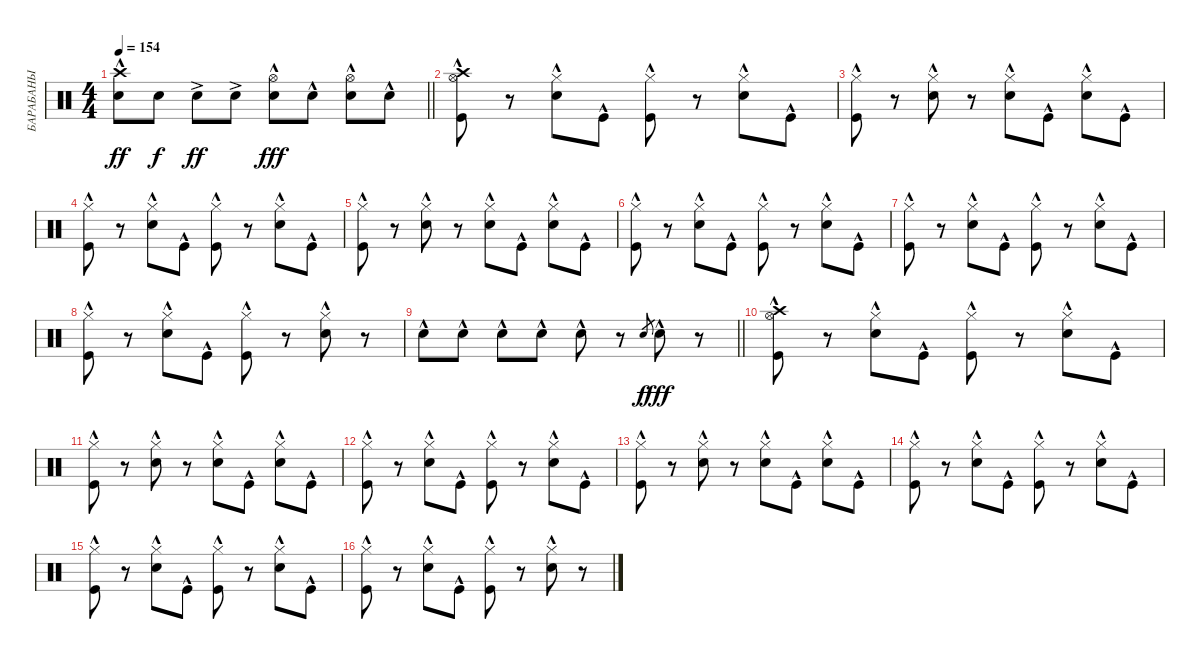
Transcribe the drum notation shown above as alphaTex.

\track ("БАРАБАНЫ" "БАРАБАНЫ") {instrument percussion}
\staff {score}
\articulation defaults
\ts (4 4)
\tempo 154
\clef neutral
\barLineRight lightlight
\ks c
("Crash high (hit)"{hac} "Snare (hit) 2").8{dy ff} "Snare (hit) 2".8{dy f} "Snare (hit) 2"{ac}.8{dy ff} "Snare (hit) 2"{ac}.8 ("Hi-Hat (open)"{hac} "Snare (hit) 2"{hac}).8{dy fff} "Snare (hit) 2"{hac}.8 ("Hi-Hat (open)"{hac} "Snare (hit) 2"{hac}).8 "Snare (hit) 2"{hac}.8 |
("Hi-Hat (open)"{hac} "Crash high (hit)"{hac} "Kick (hit)"{hac}).8 r.8 ("Hi-Hat (closed)"{hac} "Snare (hit) 2"{hac}).8 "Kick (hit)"{hac}.8 ("Hi-Hat (closed)"{hac} "Kick (hit)"{hac}).8 r.8 ("Hi-Hat (closed)"{hac} "Snare (hit) 2"{hac}).8 "Kick (hit)"{hac}.8 |
("Hi-Hat (closed)"{hac} "Kick (hit)"{hac}).8 r.8 ("Hi-Hat (closed)"{hac} "Snare (hit) 2"{hac}).8 r.8 ("Hi-Hat (closed)"{hac} "Snare (hit) 2"{hac}).8 "Kick (hit)"{hac}.8 ("Hi-Hat (closed)"{hac} "Snare (hit) 2"{hac}).8 "Kick (hit)"{hac}.8 |
("Hi-Hat (closed)"{hac} "Kick (hit)"{hac}).8 r.8 ("Hi-Hat (closed)"{hac} "Snare (hit) 2"{hac}).8 "Kick (hit)"{hac}.8 ("Hi-Hat (closed)"{hac} "Kick (hit)"{hac}).8 r.8 ("Hi-Hat (closed)"{hac} "Snare (hit) 2"{hac}).8 "Kick (hit)"{hac}.8 |
("Hi-Hat (closed)"{hac} "Kick (hit)"{hac}).8 r.8 ("Hi-Hat (closed)"{hac} "Snare (hit) 2"{hac}).8 r.8 ("Hi-Hat (closed)"{hac} "Snare (hit) 2"{hac}).8 "Kick (hit)"{hac}.8 ("Hi-Hat (closed)"{hac} "Snare (hit) 2"{hac}).8 "Kick (hit)"{hac}.8 |
("Hi-Hat (closed)"{hac} "Kick (hit)"{hac}).8 r.8 ("Hi-Hat (closed)"{hac} "Snare (hit) 2"{hac}).8 "Kick (hit)"{hac}.8 ("Hi-Hat (closed)"{hac} "Kick (hit)"{hac}).8 r.8 ("Hi-Hat (closed)"{hac} "Snare (hit) 2"{hac}).8 "Kick (hit)"{hac}.8 |
("Hi-Hat (closed)"{hac} "Kick (hit)"{hac}).8 r.8 ("Hi-Hat (closed)"{hac} "Snare (hit) 2"{hac}).8 "Kick (hit)"{hac}.8 ("Hi-Hat (closed)"{hac} "Kick (hit)"{hac}).8 r.8 ("Hi-Hat (closed)"{hac} "Snare (hit) 2"{hac}).8 "Kick (hit)"{hac}.8 |
("Hi-Hat (closed)"{hac} "Kick (hit)"{hac}).8 r.8 ("Hi-Hat (closed)"{hac} "Snare (hit) 2"{hac}).8 "Kick (hit)"{hac}.8 ("Hi-Hat (closed)"{hac} "Kick (hit)"{hac}).8 r.8 ("Hi-Hat (closed)"{hac} "Snare (hit) 2"{hac}).8 r.8 |
\barLineRight lightlight "Snare (hit) 2"{hac}.8 "Snare (hit) 2"{hac}.8 "Snare (hit) 2"{hac}.8 "Snare (hit) 2"{hac}.8 "Snare (hit) 2"{hac}.8
r.8 "Snare (hit) 2".8{gr dy f} "Snare (hit) 2"{hac}.8{dy fff} r.8 |
("Hi-Hat (open)"{hac} "Crash high (hit)"{hac} "Kick (hit)"{hac}).8 r.8 ("Hi-Hat (closed)"{hac} "Snare (hit) 2"{hac}).8 "Kick (hit)"{hac}.8 ("Hi-Hat (closed)"{hac} "Kick (hit)"{hac}).8 r.8 ("Hi-Hat (closed)"{hac} "Snare (hit) 2"{hac}).8 "Kick (hit)"{hac}.8 |
("Hi-Hat (closed)"{hac} "Kick (hit)"{hac}).8 r.8 ("Hi-Hat (closed)"{hac} "Snare (hit) 2"{hac}).8 r.8 ("Hi-Hat (closed)"{hac} "Snare (hit) 2"{hac}).8 "Kick (hit)"{hac}.8 ("Hi-Hat (closed)"{hac} "Snare (hit) 2"{hac}).8 "Kick (hit)"{hac}.8 |
("Hi-Hat (closed)"{hac} "Kick (hit)"{hac}).8 r.8 ("Hi-Hat (closed)"{hac} "Snare (hit) 2"{hac}).8 "Kick (hit)"{hac}.8 ("Hi-Hat (closed)"{hac} "Kick (hit)"{hac}).8 r.8 ("Hi-Hat (closed)"{hac} "Snare (hit) 2"{hac}).8 "Kick (hit)"{hac}.8 |
("Hi-Hat (closed)"{hac} "Kick (hit)"{hac}).8 r.8 ("Hi-Hat (closed)"{hac} "Snare (hit) 2"{hac}).8 r.8 ("Hi-Hat (closed)"{hac} "Snare (hit) 2"{hac}).8 "Kick (hit)"{hac}.8 ("Hi-Hat (closed)"{hac} "Snare (hit) 2"{hac}).8 "Kick (hit)"{hac}.8 |
("Hi-Hat (closed)"{hac} "Kick (hit)"{hac}).8 r.8 ("Hi-Hat (closed)"{hac} "Snare (hit) 2"{hac}).8 "Kick (hit)"{hac}.8 ("Hi-Hat (closed)"{hac} "Kick (hit)"{hac}).8 r.8 ("Hi-Hat (closed)"{hac} "Snare (hit) 2"{hac}).8 "Kick (hit)"{hac}.8 |
("Hi-Hat (closed)"{hac} "Kick (hit)"{hac}).8 r.8 ("Hi-Hat (closed)"{hac} "Snare (hit) 2"{hac}).8 "Kick (hit)"{hac}.8 ("Hi-Hat (closed)"{hac} "Kick (hit)"{hac}).8 r.8 ("Hi-Hat (closed)"{hac} "Snare (hit) 2"{hac}).8 "Kick (hit)"{hac}.8 |
("Hi-Hat (closed)"{hac} "Kick (hit)"{hac}).8 r.8 ("Hi-Hat (closed)"{hac} "Snare (hit) 2"{hac}).8 "Kick (hit)"{hac}.8 ("Hi-Hat (closed)"{hac} "Kick (hit)"{hac}).8 r.8 ("Hi-Hat (closed)"{hac} "Snare (hit) 2"{hac}).8 r.8
